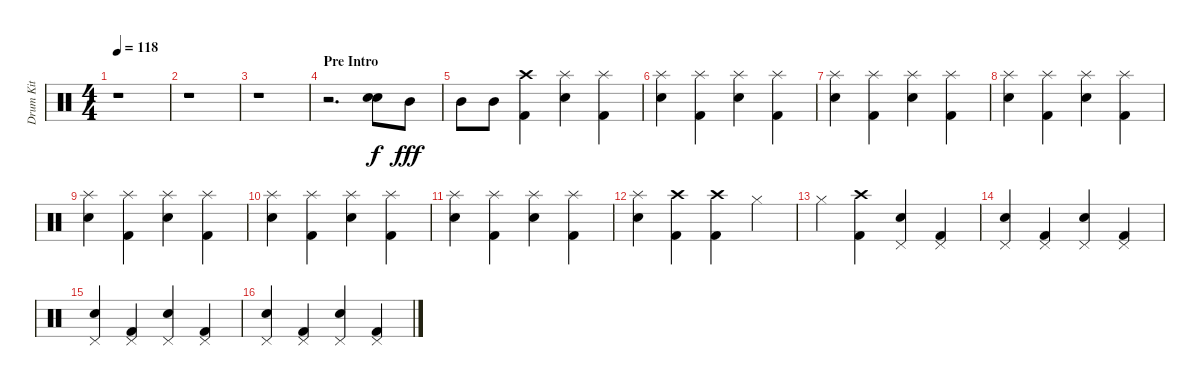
\track ("Drum Kit" "Drum Kit") {instrument percussion}
\staff {score}
\articulation defaults
\ts (4 4)
\tempo 118
\clef neutral
\ks c
r.1{dy fff} |
r.1 |
r.1 |
\section ("" "Pre Intro")
r.2{d} ("Electric Snare (hit)" "Electric Snare (hit)").8{bd 240 dy f} "Mid Tom (hit)".8{dy fff} |
"Mid Tom (hit)".8 "Mid Tom (hit)".8 ("Crash high (hit)" "Kick (hit) 2").4 ("Splash (hit)" "Electric Snare (hit)").4 ("Kick (hit) 2" "Splash (hit)").4 |
("Electric Snare (hit)" "Splash (hit)").4 ("Kick (hit) 2" "Splash (hit)").4 ("Electric Snare (hit)" "Splash (hit)").4 ("Splash (hit)" "Kick (hit) 2").4 |
("Splash (hit)" "Electric Snare (hit)").4 ("Kick (hit) 2" "Splash (hit)").4 ("Electric Snare (hit)" "Splash (hit)").4 ("Kick (hit) 2" "Splash (hit)").4 |
("Splash (hit)" "Electric Snare (hit)").4 ("Splash (hit)" "Kick (hit) 2").4 ("Splash (hit)" "Electric Snare (hit)").4 ("Kick (hit) 2" "Splash (hit)").4 |
("Electric Snare (hit)" "Splash (hit)").4 ("Kick (hit) 2" "Splash (hit)").4 ("Electric Snare (hit)" "Splash (hit)").4 ("Splash (hit)" "Kick (hit) 2").4 |
("Splash (hit)" "Electric Snare (hit)").4 ("Splash (hit)" "Kick (hit) 2").4 ("Splash (hit)" "Electric Snare (hit)").4 ("Kick (hit) 2" "Splash (hit)").4 |
("Splash (hit)" "Electric Snare (hit)").4 ("Splash (hit)" "Kick (hit) 2").4 ("Electric Snare (hit)" "Splash (hit)").4 ("Kick (hit) 2" "Splash (hit)").4 |
("Electric Snare (hit)" "Splash (hit)").4 ("Kick (hit) 2" "Crash high (hit)").4 ("Crash high (hit)" "Kick (hit) 2").4 "Hi-Hat (closed)".4 |
"Hi-Hat (closed)".4 ("Crash high (hit)" "Kick (hit) 2").4 ("Electric Snare (hit)" "Pedal Hi-Hat (hit)").4 ("Kick (hit) 2" "Pedal Hi-Hat (hit)").4 |
("Electric Snare (hit)" "Pedal Hi-Hat (hit)").4 ("Pedal Hi-Hat (hit)" "Kick (hit) 2").4 ("Pedal Hi-Hat (hit)" "Electric Snare (hit)").4 ("Pedal Hi-Hat (hit)" "Kick (hit) 2").4 |
("Pedal Hi-Hat (hit)" "Electric Snare (hit)").4 ("Kick (hit) 2" "Pedal Hi-Hat (hit)").4 ("Electric Snare (hit)" "Pedal Hi-Hat (hit)").4 ("Kick (hit) 2" "Pedal Hi-Hat (hit)").4 |
("Pedal Hi-Hat (hit)" "Electric Snare (hit)").4 ("Pedal Hi-Hat (hit)" "Kick (hit) 2").4 ("Pedal Hi-Hat (hit)" "Electric Snare (hit)").4 ("Kick (hit) 2" "Pedal Hi-Hat (hit)").4
